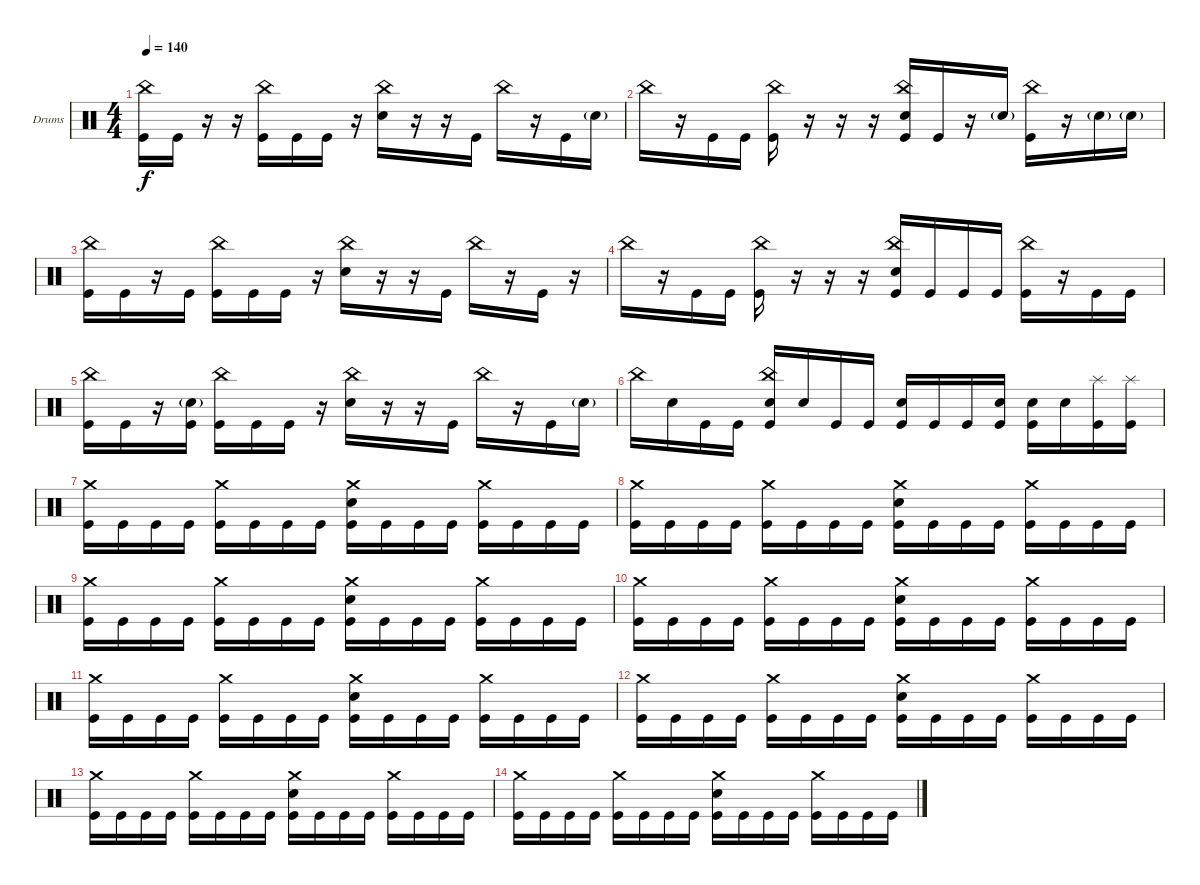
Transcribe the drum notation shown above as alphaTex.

\bracketExtendMode groupsimilarinstruments
\firstSystemTrackNameOrientation horizontal
\otherSystemsTrackNameOrientation horizontal
\track ("Drumkit" "Drums") {instrument percussion}
\staff {score}
\articulation defaults
\ts (4 4)
\tempo 140
\clef neutral
\ks c
("Kick (hit)" "China (hit)").16{dy f} "Kick (hit)".16 r.16 r.16 ("Kick (hit)" "China (hit)").16 "Kick (hit)".16 "Kick (hit)".16 r.16 ("Snare (hit) 2" "China (hit)").16 r.16 r.16 "Kick (hit)".16 "China (hit)".16 r.16 "Kick (hit)".16 "Snare (hit) 2"{g}.16 |
"China (hit)".16 r.16 "Kick (hit)".16 "Kick (hit)".16 ("Kick (hit)" "China (hit)").16 r.16 r.16 r.16 ("Kick (hit)" "Snare (hit) 2" "China (hit)").16 "Kick (hit)".16 r.16 "Snare (hit) 2"{g}.16 ("Kick (hit)" "China (hit)").16 r.16 "Snare (hit) 2"{g}.16 "Snare (hit) 2"{g}.16 |
("Kick (hit)" "China (hit)").16 "Kick (hit)".16 r.16 "Kick (hit)".16 ("Kick (hit)" "China (hit)").16 "Kick (hit)".16 "Kick (hit)".16 r.16 ("Snare (hit) 2" "China (hit)").16 r.16 r.16 "Kick (hit)".16 "China (hit)".16 r.16 "Kick (hit)".16 r.16 |
"China (hit)".16 r.16 "Kick (hit)".16 "Kick (hit)".16 ("Kick (hit)" "China (hit)").16 r.16 r.16 r.16 ("Kick (hit)" "Snare (hit) 2" "China (hit)").16 "Kick (hit)".16 "Kick (hit)".16 "Kick (hit)".16 ("Kick (hit)" "China (hit)").16 r.16 "Kick (hit)".16 "Kick (hit)".16 |
("Kick (hit)" "China (hit)").16 "Kick (hit)".16 r.16 ("Kick (hit)" "Snare (hit) 2"{g}).16 ("Kick (hit)" "China (hit)").16 "Kick (hit)".16 "Kick (hit)".16 r.16 ("Snare (hit) 2" "China (hit)").16 r.16 r.16 "Kick (hit)".16 "China (hit)".16 r.16 "Kick (hit)".16 "Snare (hit) 2"{g}.16 |
"China (hit)".16 "Snare (hit) 2".16 "Kick (hit)".16 "Kick (hit)".16 ("Kick (hit)" "China (hit)" "Snare (hit) 2").16 "Snare (hit) 2".16 "Kick (hit)".16 "Kick (hit)".16 ("Kick (hit)" "Snare (hit) 2").16 "Kick (hit)".16 "Kick (hit)".16 ("Kick (hit)" "Snare (hit) 2").16 ("Kick (hit)" "Snare (hit) 2").16 "Snare (hit) 2".16 ("Kick (hit)" "Splash (hit)").16 ("Kick (hit)" "Splash (hit)").16 |
("Kick (hit)" "Crash medium (hit)").16 "Kick (hit)".16 "Kick (hit)".16 "Kick (hit)".16 ("Kick (hit)" "Crash medium (hit)").16 "Kick (hit)".16 "Kick (hit)".16 "Kick (hit)".16 ("Kick (hit)" "Crash medium (hit)" "Snare (hit) 2").16 "Kick (hit)".16 "Kick (hit)".16 "Kick (hit)".16 ("Kick (hit)" "Crash medium (hit)").16 "Kick (hit)".16 "Kick (hit)".16 "Kick (hit)".16 |
("Kick (hit)" "Crash medium (hit)").16 "Kick (hit)".16 "Kick (hit)".16 "Kick (hit)".16 ("Kick (hit)" "Crash medium (hit)").16 "Kick (hit)".16 "Kick (hit)".16 "Kick (hit)".16 ("Kick (hit)" "Crash medium (hit)" "Snare (hit) 2").16 "Kick (hit)".16 "Kick (hit)".16 "Kick (hit)".16 ("Kick (hit)" "Crash medium (hit)").16 "Kick (hit)".16 "Kick (hit)".16 "Kick (hit)".16 |
("Kick (hit)" "Crash medium (hit)").16 "Kick (hit)".16 "Kick (hit)".16 "Kick (hit)".16 ("Kick (hit)" "Crash medium (hit)").16 "Kick (hit)".16 "Kick (hit)".16 "Kick (hit)".16 ("Kick (hit)" "Crash medium (hit)" "Snare (hit) 2").16 "Kick (hit)".16 "Kick (hit)".16 "Kick (hit)".16 ("Kick (hit)" "Crash medium (hit)").16 "Kick (hit)".16 "Kick (hit)".16 "Kick (hit)".16 |
("Kick (hit)" "Crash medium (hit)").16 "Kick (hit)".16 "Kick (hit)".16 "Kick (hit)".16 ("Kick (hit)" "Crash medium (hit)").16 "Kick (hit)".16 "Kick (hit)".16 "Kick (hit)".16 ("Kick (hit)" "Crash medium (hit)" "Snare (hit) 2").16 "Kick (hit)".16 "Kick (hit)".16 "Kick (hit)".16 ("Kick (hit)" "Crash medium (hit)").16 "Kick (hit)".16 "Kick (hit)".16 "Kick (hit)".16 |
("Kick (hit)" "Crash medium (hit)").16 "Kick (hit)".16 "Kick (hit)".16 "Kick (hit)".16 ("Kick (hit)" "Crash medium (hit)").16 "Kick (hit)".16 "Kick (hit)".16 "Kick (hit)".16 ("Kick (hit)" "Crash medium (hit)" "Snare (hit) 2").16 "Kick (hit)".16 "Kick (hit)".16 "Kick (hit)".16 ("Kick (hit)" "Crash medium (hit)").16 "Kick (hit)".16 "Kick (hit)".16 "Kick (hit)".16 |
("Kick (hit)" "Crash medium (hit)").16 "Kick (hit)".16 "Kick (hit)".16 "Kick (hit)".16 ("Kick (hit)" "Crash medium (hit)").16 "Kick (hit)".16 "Kick (hit)".16 "Kick (hit)".16 ("Kick (hit)" "Crash medium (hit)" "Snare (hit) 2").16 "Kick (hit)".16 "Kick (hit)".16 "Kick (hit)".16 ("Kick (hit)" "Crash medium (hit)").16 "Kick (hit)".16 "Kick (hit)".16 "Kick (hit)".16 |
("Kick (hit)" "Crash medium (hit)").16 "Kick (hit)".16 "Kick (hit)".16 "Kick (hit)".16 ("Kick (hit)" "Crash medium (hit)").16 "Kick (hit)".16 "Kick (hit)".16 "Kick (hit)".16 ("Kick (hit)" "Crash medium (hit)" "Snare (hit) 2").16 "Kick (hit)".16 "Kick (hit)".16 "Kick (hit)".16 ("Kick (hit)" "Crash medium (hit)").16 "Kick (hit)".16 "Kick (hit)".16 "Kick (hit)".16 |
("Kick (hit)" "Crash medium (hit)").16 "Kick (hit)".16 "Kick (hit)".16 "Kick (hit)".16 ("Kick (hit)" "Crash medium (hit)").16 "Kick (hit)".16 "Kick (hit)".16 "Kick (hit)".16 ("Kick (hit)" "Crash medium (hit)" "Snare (hit) 2").16 "Kick (hit)".16 "Kick (hit)".16 "Kick (hit)".16 ("Kick (hit)" "Crash medium (hit)").16 "Kick (hit)".16 "Kick (hit)".16 "Kick (hit)".16
